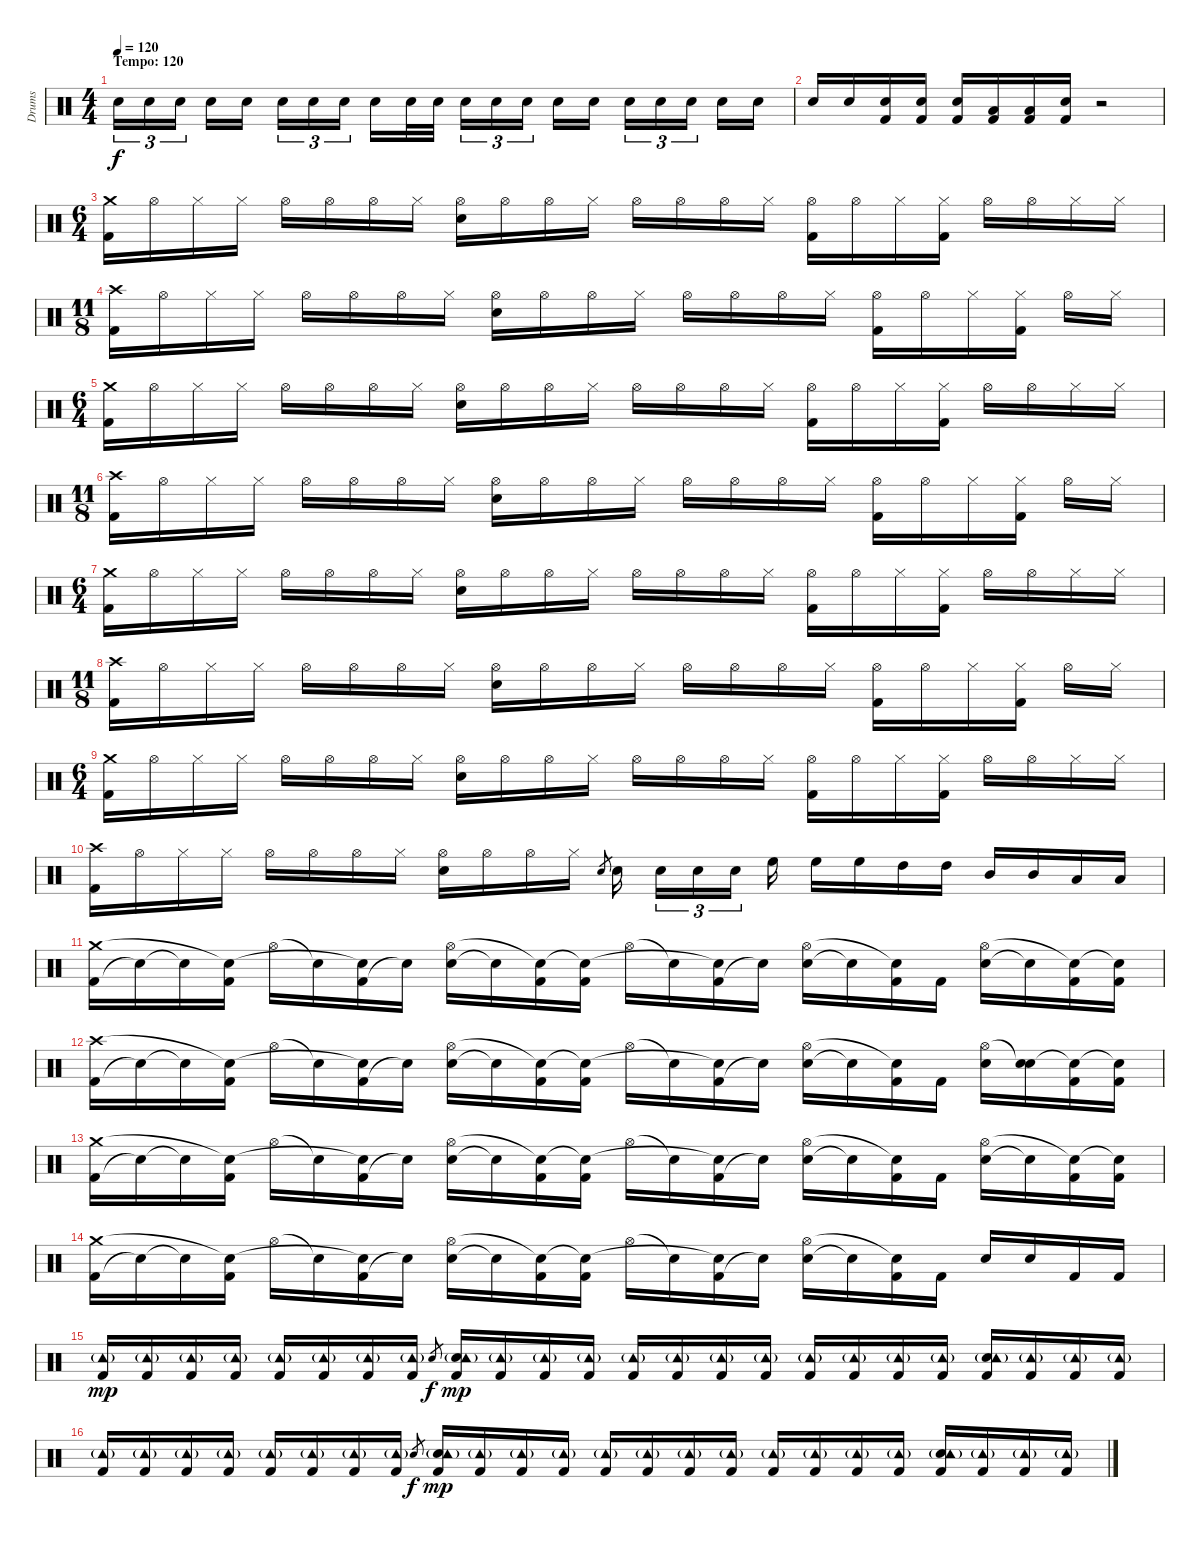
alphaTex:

\track ("Drums" "Drums") {instrument percussion}
\staff {score}
\articulation defaults
\ts (4 4)
\section ("" "Tempo: 120")
\tempo 120
\clef neutral
\ks c "Snare (hit) 2".16{tu (3 2) dy f} "Snare (hit) 2".16{tu (3 2)} "Snare (hit) 2".16{tu (3 2)} "Snare (hit) 2".16 "Snare (hit) 2".16 "Snare (hit) 2".16{tu (3 2)} "Snare (hit) 2".16{tu (3 2)} "Snare (hit) 2".16{tu (3 2)} "Snare (hit) 2".16 "Snare (hit) 2".32 "Snare (hit) 2".32 "Snare (hit) 2".16{tu (3 2)} "Snare (hit) 2".16{tu (3 2)} "Snare (hit) 2".16{tu (3 2)} "Snare (hit) 2".16 "Snare (hit) 2".16 "Snare (hit) 2".16{tu (3 2)} "Snare (hit) 2".16{tu (3 2)} "Snare (hit) 2".16{tu (3 2)} "Snare (hit) 2".16 "Snare (hit) 2".16
|
"Snare (hit) 2".16 "Snare (hit) 2".16 ("Kick (hit) 2" "Snare (hit) 2").16 ("Kick (hit) 2" "Snare (hit) 2").16 ("Kick (hit) 2" "Snare (hit) 2").16 ("Kick (hit) 2" "Low Floor Tom (hit)").16 ("Kick (hit) 2" "Low Floor Tom (hit)").16 ("Kick (hit) 2" "Snare (hit) 2").16 r.2 |
\ts (6 4)
("Kick (hit) 2" "Crash medium (hit)").16 "Hi-Hat (open)".16 "Hi-Hat (closed)".16 "Hi-Hat (closed)".16 "Hi-Hat (open)".16 "Hi-Hat (open)".16 "Hi-Hat (open)".16 "Hi-Hat (closed)".16 ("Snare (hit) 2" "Hi-Hat (open)").16 "Hi-Hat (open)".16 "Hi-Hat (open)".16 "Hi-Hat (closed)".16 "Hi-Hat (open)".16 "Hi-Hat (open)".16 "Hi-Hat (open)".16 "Hi-Hat (closed)".16 ("Kick (hit) 2" "Hi-Hat (open)").16 "Hi-Hat (open)".16 "Hi-Hat (closed)".16 ("Kick (hit) 2" "Hi-Hat (closed)").16 "Hi-Hat (open)".16 "Hi-Hat (open)".16 "Hi-Hat (closed)".16 "Hi-Hat (closed)".16 |
\ts (11 8)
("Kick (hit) 2" "Crash high (hit)").16 "Hi-Hat (open)".16 "Hi-Hat (closed)".16 "Hi-Hat (closed)".16 "Hi-Hat (open)".16 "Hi-Hat (open)".16 "Hi-Hat (open)".16 "Hi-Hat (closed)".16 ("Snare (hit) 2" "Hi-Hat (open)").16 "Hi-Hat (open)".16 "Hi-Hat (open)".16 "Hi-Hat (closed)".16 "Hi-Hat (open)".16 "Hi-Hat (open)".16 "Hi-Hat (open)".16 "Hi-Hat (closed)".16 ("Kick (hit) 2" "Hi-Hat (open)").16 "Hi-Hat (open)".16 "Hi-Hat (closed)".16 ("Kick (hit) 2" "Hi-Hat (closed)").16 "Hi-Hat (open)".16 "Hi-Hat (closed)".16 |
\ts (6 4)
("Kick (hit) 2" "Crash medium (hit)").16 "Hi-Hat (open)".16 "Hi-Hat (closed)".16 "Hi-Hat (closed)".16 "Hi-Hat (open)".16 "Hi-Hat (open)".16 "Hi-Hat (open)".16 "Hi-Hat (closed)".16 ("Snare (hit) 2" "Hi-Hat (open)").16 "Hi-Hat (open)".16 "Hi-Hat (open)".16 "Hi-Hat (closed)".16 "Hi-Hat (open)".16 "Hi-Hat (open)".16 "Hi-Hat (open)".16 "Hi-Hat (closed)".16 ("Kick (hit) 2" "Hi-Hat (open)").16 "Hi-Hat (open)".16 "Hi-Hat (closed)".16 ("Kick (hit) 2" "Hi-Hat (closed)").16 "Hi-Hat (open)".16 "Hi-Hat (open)".16 "Hi-Hat (closed)".16 "Hi-Hat (closed)".16 |
\ts (11 8)
("Kick (hit) 2" "Crash high (hit)").16 "Hi-Hat (open)".16 "Hi-Hat (closed)".16 "Hi-Hat (closed)".16 "Hi-Hat (open)".16 "Hi-Hat (open)".16 "Hi-Hat (open)".16 "Hi-Hat (closed)".16 ("Snare (hit) 2" "Hi-Hat (open)").16 "Hi-Hat (open)".16 "Hi-Hat (open)".16 "Hi-Hat (closed)".16 "Hi-Hat (open)".16 "Hi-Hat (open)".16 "Hi-Hat (open)".16 "Hi-Hat (closed)".16 ("Kick (hit) 2" "Hi-Hat (open)").16 "Hi-Hat (open)".16 "Hi-Hat (closed)".16 ("Kick (hit) 2" "Hi-Hat (closed)").16 "Hi-Hat (open)".16 "Hi-Hat (closed)".16 |
\ts (6 4)
("Kick (hit) 2" "Crash medium (hit)").16 "Hi-Hat (open)".16 "Hi-Hat (closed)".16 "Hi-Hat (closed)".16 "Hi-Hat (open)".16 "Hi-Hat (open)".16 "Hi-Hat (open)".16 "Hi-Hat (closed)".16 ("Snare (hit) 2" "Hi-Hat (open)").16 "Hi-Hat (open)".16 "Hi-Hat (open)".16 "Hi-Hat (closed)".16 "Hi-Hat (open)".16 "Hi-Hat (open)".16 "Hi-Hat (open)".16 "Hi-Hat (closed)".16 ("Kick (hit) 2" "Hi-Hat (open)").16 "Hi-Hat (open)".16 "Hi-Hat (closed)".16 ("Kick (hit) 2" "Hi-Hat (closed)").16 "Hi-Hat (open)".16 "Hi-Hat (open)".16 "Hi-Hat (closed)".16 "Hi-Hat (closed)".16 |
\ts (11 8)
("Kick (hit) 2" "Crash high (hit)").16 "Hi-Hat (open)".16 "Hi-Hat (closed)".16 "Hi-Hat (closed)".16 "Hi-Hat (open)".16 "Hi-Hat (open)".16 "Hi-Hat (open)".16 "Hi-Hat (closed)".16 ("Snare (hit) 2" "Hi-Hat (open)").16 "Hi-Hat (open)".16 "Hi-Hat (open)".16 "Hi-Hat (closed)".16 "Hi-Hat (open)".16 "Hi-Hat (open)".16 "Hi-Hat (open)".16 "Hi-Hat (closed)".16 ("Kick (hit) 2" "Hi-Hat (open)").16 "Hi-Hat (open)".16 "Hi-Hat (closed)".16 ("Kick (hit) 2" "Hi-Hat (closed)").16 "Hi-Hat (open)".16 "Hi-Hat (closed)".16 |
\ts (6 4)
("Kick (hit) 2" "Crash medium (hit)").16 "Hi-Hat (open)".16 "Hi-Hat (closed)".16 "Hi-Hat (closed)".16 "Hi-Hat (open)".16 "Hi-Hat (open)".16 "Hi-Hat (open)".16 "Hi-Hat (closed)".16 ("Snare (hit) 2" "Hi-Hat (open)").16 "Hi-Hat (open)".16 "Hi-Hat (open)".16 "Hi-Hat (closed)".16 "Hi-Hat (open)".16 "Hi-Hat (open)".16 "Hi-Hat (open)".16 "Hi-Hat (closed)".16 ("Kick (hit) 2" "Hi-Hat (open)").16 "Hi-Hat (open)".16 "Hi-Hat (closed)".16 ("Kick (hit) 2" "Hi-Hat (closed)").16 "Hi-Hat (open)".16 "Hi-Hat (open)".16 "Hi-Hat (closed)".16 "Hi-Hat (closed)".16 |
("Kick (hit) 2" "Crash high (hit)").16 "Hi-Hat (open)".16 "Hi-Hat (closed)".16 "Hi-Hat (closed)".16 "Hi-Hat (open)".16 "Hi-Hat (open)".16 "Hi-Hat (open)".16 "Hi-Hat (closed)".16 ("Snare (hit) 2" "Hi-Hat (open)").16 "Hi-Hat (open)".16 "Hi-Hat (open)".16 "Hi-Hat (closed)".16 "Snare (hit) 2".8{gr} "Snare (hit) 2".16 "Snare (hit) 2".16{tu (3 2)} "Snare (hit) 2".16{tu (3 2)} "Snare (hit) 2".16{tu (3 2)} "High Floor Tom (hit)".16 "High Floor Tom (hit)".16 "High Floor Tom (hit)".16 "High Tom (hit)".16 "High Tom (hit)".16 "Mid Tom (hit)".16 "Mid Tom (hit)".16 "Low Tom (hit)".16 "Low Tom (hit)".16 |
("Kick (hit) 2" "Crash medium (hit)").16 "Snare (hit)"{t}.16 "Snare (hit)"{t}.16 ("Kick (hit) 2" "Snare (hit)"{t}).16 "Hi-Hat (open)".16 "Snare (hit)"{t}.16 ("Kick (hit) 2" "Snare (hit)"{t}).16 "Snare (hit)"{t}.16 ("Snare (hit) 2" "Hi-Hat (open)").16 "Snare (hit)"{t}.16 ("Kick (hit) 2" "Snare (hit)"{t}).16 ("Kick (hit) 2" "Snare (hit)"{t}).16 "Hi-Hat (open)".16 "Snare (hit)"{t}.16 ("Kick (hit) 2" "Snare (hit)"{t}).16 "Snare (hit)"{t}.16 ("Snare (hit) 2" "Hi-Hat (open)").16 "Snare (hit)"{t}.16 ("Kick (hit) 2" "Snare (hit)"{t}).16 "Kick (hit) 2".16 ("Snare (hit) 2" "Hi-Hat (open)").16 "Snare (hit)"{t}.16 ("Kick (hit) 2" "Snare (hit)"{t}).16 ("Kick (hit) 2" "Snare (hit)"{t}).16 |
("Kick (hit) 2" "Crash high (hit)").16 "Snare (hit)"{t}.16 "Snare (hit)"{t}.16 ("Kick (hit) 2" "Snare (hit)"{t}).16 "Hi-Hat (open)".16 "Snare (hit)"{t}.16 ("Kick (hit) 2" "Snare (hit)"{t}).16 "Snare (hit)"{t}.16 ("Snare (hit) 2" "Hi-Hat (open)").16 "Snare (hit)"{t}.16 ("Kick (hit) 2" "Snare (hit)"{t}).16 ("Kick (hit) 2" "Snare (hit)"{t}).16 "Hi-Hat (open)".16 "Snare (hit)"{t}.16 ("Kick (hit) 2" "Snare (hit)"{t}).16 "Snare (hit)"{t}.16 ("Snare (hit) 2" "Hi-Hat (open)").16 "Snare (hit)"{t}.16 ("Kick (hit) 2" "Snare (hit)"{t}).16 "Kick (hit) 2".16 ("Snare (hit) 2" "Hi-Hat (open)").16 ("Snare (hit) 2" "Snare (hit)"{t}).16 ("Kick (hit) 2" "Snare (hit)"{t}).16 ("Kick (hit) 2" "Snare (hit)"{t}).16 |
("Kick (hit) 2" "Crash medium (hit)").16 "Snare (hit)"{t}.16 "Snare (hit)"{t}.16 ("Kick (hit) 2" "Snare (hit)"{t}).16 "Hi-Hat (open)".16 "Snare (hit)"{t}.16 ("Kick (hit) 2" "Snare (hit)"{t}).16 "Snare (hit)"{t}.16 ("Snare (hit) 2" "Hi-Hat (open)").16 "Snare (hit)"{t}.16 ("Kick (hit) 2" "Snare (hit)"{t}).16 ("Kick (hit) 2" "Snare (hit)"{t}).16 "Hi-Hat (open)".16 "Snare (hit)"{t}.16 ("Kick (hit) 2" "Snare (hit)"{t}).16 "Snare (hit)"{t}.16 ("Snare (hit) 2" "Hi-Hat (open)").16 "Snare (hit)"{t}.16 ("Kick (hit) 2" "Snare (hit)"{t}).16 "Kick (hit) 2".16 ("Snare (hit) 2" "Hi-Hat (open)").16 "Snare (hit)"{t}.16 ("Kick (hit) 2" "Snare (hit)"{t}).16 ("Kick (hit) 2" "Snare (hit)"{t}).16 |
("Kick (hit) 2" "Crash medium (hit)").16 "Snare (hit)"{t}.16 "Snare (hit)"{t}.16 ("Kick (hit) 2" "Snare (hit)"{t}).16 "Hi-Hat (open)".16 "Snare (hit)"{t}.16 ("Kick (hit) 2" "Snare (hit)"{t}).16 "Snare (hit)"{t}.16 ("Snare (hit) 2" "Hi-Hat (open)").16 "Snare (hit)"{t}.16 ("Kick (hit) 2" "Snare (hit)"{t}).16 ("Kick (hit) 2" "Snare (hit)"{t}).16 "Hi-Hat (open)".16 "Snare (hit)"{t}.16 ("Kick (hit) 2" "Snare (hit)"{t}).16 "Snare (hit)"{t}.16 ("Snare (hit) 2" "Hi-Hat (open)").16 "Snare (hit)"{t}.16 ("Kick (hit) 2" "Snare (hit)"{t}).16 "Kick (hit) 2".16 "Snare (hit) 2".16 "Snare (hit) 2".16 "Kick (hit) 2".16 "Kick (hit) 2".16 |
("Kick (hit) 2" "Tambourine (hit)"{g}).16{dy mp} ("Kick (hit) 2" "Tambourine (hit)"{g}).16 ("Kick (hit) 2" "Tambourine (hit)"{g}).16 ("Kick (hit) 2" "Tambourine (hit)"{g}).16 ("Kick (hit) 2" "Tambourine (hit)"{g}).16 ("Kick (hit) 2" "Tambourine (hit)"{g}).16 ("Kick (hit) 2" "Tambourine (hit)"{g}).16 ("Kick (hit) 2" "Tambourine (hit)"{g}).16 "Snare (hit) 2".8{gr dy f} ("Kick (hit) 2" "Snare (hit) 2" "Tambourine (hit)"{g}).16{dy mp} ("Kick (hit) 2" "Tambourine (hit)"{g}).16 ("Kick (hit) 2" "Tambourine (hit)"{g}).16 ("Kick (hit) 2" "Tambourine (hit)"{g}).16 ("Kick (hit) 2" "Tambourine (hit)"{g}).16 ("Kick (hit) 2" "Tambourine (hit)"{g}).16 ("Kick (hit) 2" "Tambourine (hit)"{g}).16 ("Kick (hit) 2" "Tambourine (hit)"{g}).16 ("Kick (hit) 2" "Tambourine (hit)"{g}).16 ("Kick (hit) 2" "Tambourine (hit)"{g}).16 ("Kick (hit) 2" "Tambourine (hit)"{g}).16 ("Kick (hit) 2" "Tambourine (hit)"{g}).16 ("Kick (hit) 2" "Snare (hit) 2" "Tambourine (hit)"{g}).16 ("Kick (hit) 2" "Tambourine (hit)"{g}).16 ("Kick (hit) 2" "Tambourine (hit)"{g}).16 ("Kick (hit) 2" "Tambourine (hit)"{g}).16 |
("Kick (hit) 2" "Tambourine (hit)"{g}).16 ("Kick (hit) 2" "Tambourine (hit)"{g}).16 ("Kick (hit) 2" "Tambourine (hit)"{g}).16 ("Kick (hit) 2" "Tambourine (hit)"{g}).16 ("Kick (hit) 2" "Tambourine (hit)"{g}).16 ("Kick (hit) 2" "Tambourine (hit)"{g}).16 ("Kick (hit) 2" "Tambourine (hit)"{g}).16 ("Kick (hit) 2" "Tambourine (hit)"{g}).16 "Snare (hit) 2".8{gr dy f} ("Kick (hit) 2" "Snare (hit) 2" "Tambourine (hit)"{g}).16{dy mp} ("Kick (hit) 2" "Tambourine (hit)"{g}).16 ("Kick (hit) 2" "Tambourine (hit)"{g}).16 ("Kick (hit) 2" "Tambourine (hit)"{g}).16 ("Kick (hit) 2" "Tambourine (hit)"{g}).16 ("Kick (hit) 2" "Tambourine (hit)"{g}).16 ("Kick (hit) 2" "Tambourine (hit)"{g}).16 ("Kick (hit) 2" "Tambourine (hit)"{g}).16 ("Kick (hit) 2" "Tambourine (hit)"{g}).16 ("Kick (hit) 2" "Tambourine (hit)"{g}).16 ("Kick (hit) 2" "Tambourine (hit)"{g}).16 ("Kick (hit) 2" "Tambourine (hit)"{g}).16 ("Kick (hit) 2" "Snare (hit) 2" "Tambourine (hit)"{g}).16 ("Kick (hit) 2" "Tambourine (hit)"{g}).16 ("Kick (hit) 2" "Tambourine (hit)"{g}).16 ("Kick (hit) 2" "Tambourine (hit)"{g}).16
